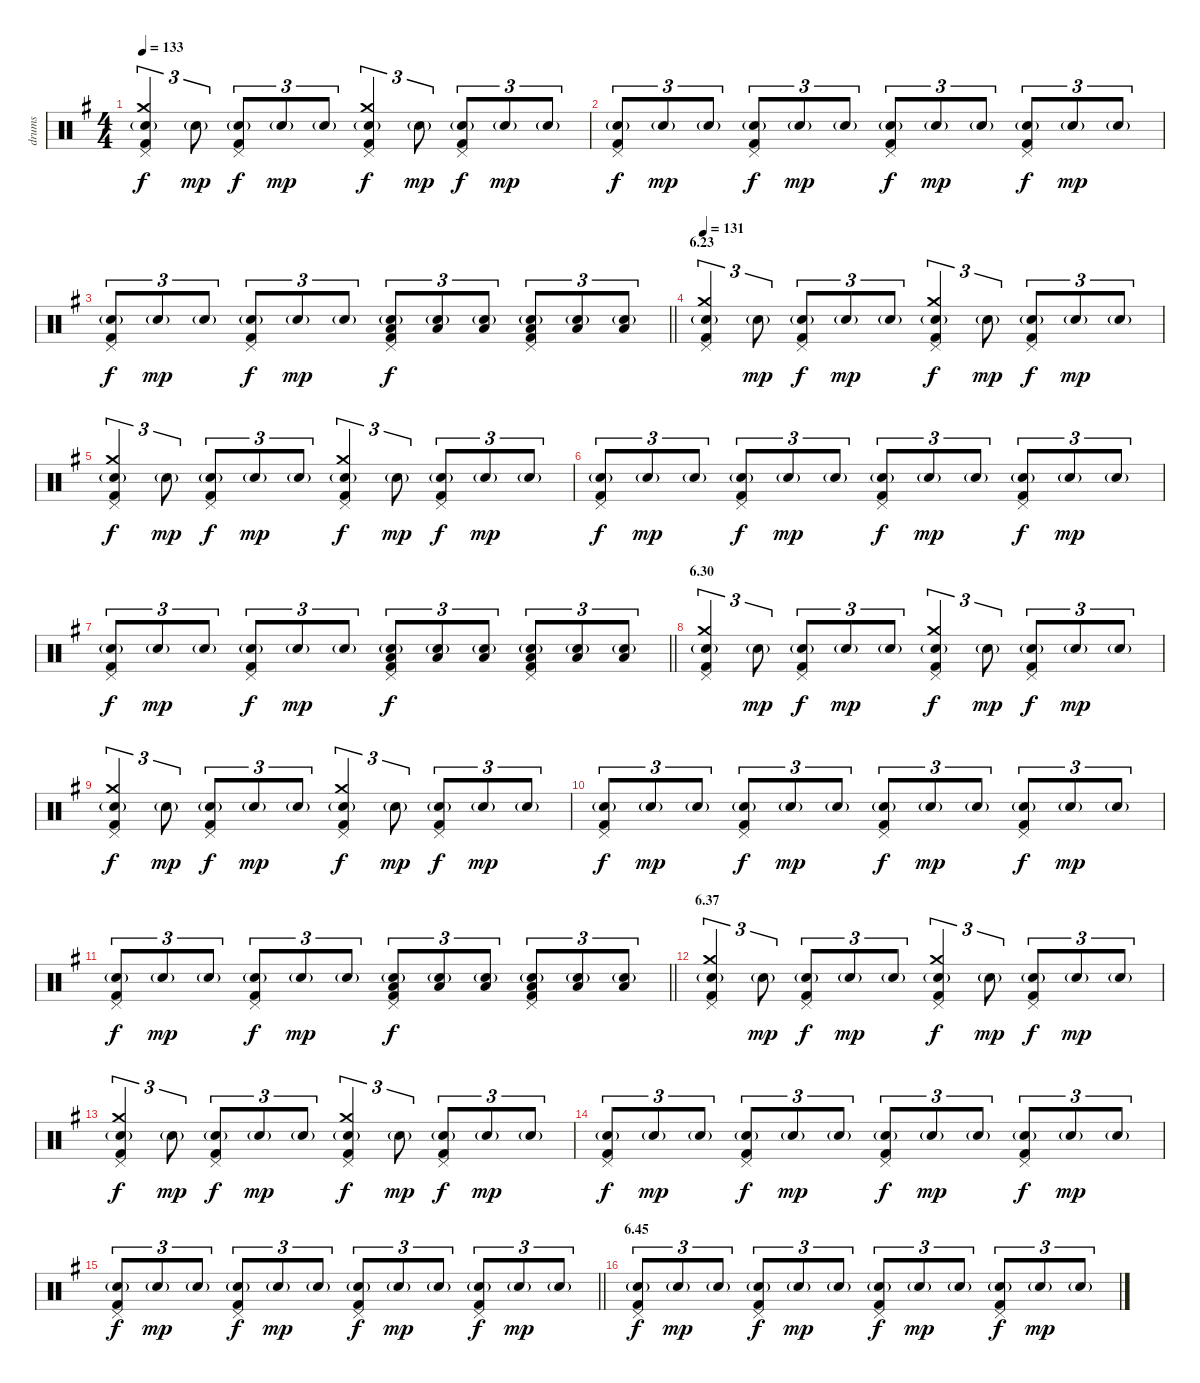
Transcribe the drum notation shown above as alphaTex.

\track ("drums" "drums") {instrument percussion}
\staff {score}
\articulation defaults
\ts (4 4)
\tempo 133
\clef neutral
\ks g
("Pedal Hi-Hat (hit)" "Crash medium (hit)" "Electric Snare (hit)"{g} "Kick (hit) 2").4{tu (3 2) dy f} "Electric Snare (hit)"{g}.8{tu (3 2) dy mp} ("Pedal Hi-Hat (hit)" "Electric Snare (hit)"{g} "Kick (hit) 2").8{tu (3 2) dy f} "Electric Snare (hit)"{g}.8{tu (3 2) dy mp} "Electric Snare (hit)"{g}.8{tu (3 2)} ("Pedal Hi-Hat (hit)" "Crash medium (hit)" "Electric Snare (hit)"{g} "Kick (hit) 2").4{tu (3 2) dy f} "Electric Snare (hit)"{g}.8{tu (3 2) dy mp} ("Pedal Hi-Hat (hit)" "Electric Snare (hit)"{g} "Kick (hit) 2").8{tu (3 2) dy f} "Electric Snare (hit)"{g}.8{tu (3 2) dy mp} "Electric Snare (hit)"{g}.8{tu (3 2)} |
("Pedal Hi-Hat (hit)" "Electric Snare (hit)"{g} "Kick (hit) 2").8{tu (3 2) dy f} "Electric Snare (hit)"{g}.8{tu (3 2) dy mp} "Electric Snare (hit)"{g}.8{tu (3 2)} ("Pedal Hi-Hat (hit)" "Electric Snare (hit)"{g} "Kick (hit) 2").8{tu (3 2) dy f} "Electric Snare (hit)"{g}.8{tu (3 2) dy mp} "Electric Snare (hit)"{g}.8{tu (3 2)} ("Pedal Hi-Hat (hit)" "Electric Snare (hit)"{g} "Kick (hit) 2").8{tu (3 2) dy f} "Electric Snare (hit)"{g}.8{tu (3 2) dy mp} "Electric Snare (hit)"{g}.8{tu (3 2)} ("Pedal Hi-Hat (hit)" "Electric Snare (hit)"{g} "Kick (hit) 2").8{tu (3 2) dy f} "Electric Snare (hit)"{g}.8{tu (3 2) dy mp} "Electric Snare (hit)"{g}.8{tu (3 2)} |
\barLineRight lightlight
("Pedal Hi-Hat (hit)" "Electric Snare (hit)"{g} "Kick (hit) 2").8{tu (3 2) dy f} "Electric Snare (hit)"{g}.8{tu (3 2) dy mp} "Electric Snare (hit)"{g}.8{tu (3 2)} ("Pedal Hi-Hat (hit)" "Electric Snare (hit)"{g} "Kick (hit) 2").8{tu (3 2) dy f} "Electric Snare (hit)"{g}.8{tu (3 2) dy mp} "Electric Snare (hit)"{g}.8{tu (3 2)} ("Pedal Hi-Hat (hit)" "Low Tom (hit)" "Electric Snare (hit)"{g} "Kick (hit) 2").8{tu (3 2) dy f} ("Low Tom (hit)" "Electric Snare (hit)"{g}).8{tu (3 2)} ("Low Tom (hit)" "Electric Snare (hit)"{g}).8{tu (3 2)} ("Pedal Hi-Hat (hit)" "Low Tom (hit)" "Electric Snare (hit)"{g} "Kick (hit) 2").8{tu (3 2)} ("Low Tom (hit)" "Electric Snare (hit)"{g}).8{tu (3 2)} ("Low Tom (hit)" "Electric Snare (hit)"{g}).8{tu (3 2)} |
\section ("" "6.23")
\tempo 131
("Pedal Hi-Hat (hit)" "Crash medium (hit)" "Electric Snare (hit)"{g} "Kick (hit) 2").4{tu (3 2)} "Electric Snare (hit)"{g}.8{tu (3 2) dy mp} ("Pedal Hi-Hat (hit)" "Electric Snare (hit)"{g} "Kick (hit) 2").8{tu (3 2) dy f} "Electric Snare (hit)"{g}.8{tu (3 2) dy mp} "Electric Snare (hit)"{g}.8{tu (3 2)} ("Pedal Hi-Hat (hit)" "Crash medium (hit)" "Electric Snare (hit)"{g} "Kick (hit) 2").4{tu (3 2) dy f} "Electric Snare (hit)"{g}.8{tu (3 2) dy mp} ("Pedal Hi-Hat (hit)" "Electric Snare (hit)"{g} "Kick (hit) 2").8{tu (3 2) dy f} "Electric Snare (hit)"{g}.8{tu (3 2) dy mp} "Electric Snare (hit)"{g}.8{tu (3 2)} |
("Pedal Hi-Hat (hit)" "Crash medium (hit)" "Electric Snare (hit)"{g} "Kick (hit) 2").4{tu (3 2) dy f} "Electric Snare (hit)"{g}.8{tu (3 2) dy mp} ("Pedal Hi-Hat (hit)" "Electric Snare (hit)"{g} "Kick (hit) 2").8{tu (3 2) dy f} "Electric Snare (hit)"{g}.8{tu (3 2) dy mp} "Electric Snare (hit)"{g}.8{tu (3 2)} ("Pedal Hi-Hat (hit)" "Crash medium (hit)" "Electric Snare (hit)"{g} "Kick (hit) 2").4{tu (3 2) dy f} "Electric Snare (hit)"{g}.8{tu (3 2) dy mp} ("Pedal Hi-Hat (hit)" "Electric Snare (hit)"{g} "Kick (hit) 2").8{tu (3 2) dy f} "Electric Snare (hit)"{g}.8{tu (3 2) dy mp} "Electric Snare (hit)"{g}.8{tu (3 2)} |
("Pedal Hi-Hat (hit)" "Electric Snare (hit)"{g} "Kick (hit) 2").8{tu (3 2) dy f} "Electric Snare (hit)"{g}.8{tu (3 2) dy mp} "Electric Snare (hit)"{g}.8{tu (3 2)} ("Pedal Hi-Hat (hit)" "Electric Snare (hit)"{g} "Kick (hit) 2").8{tu (3 2) dy f} "Electric Snare (hit)"{g}.8{tu (3 2) dy mp} "Electric Snare (hit)"{g}.8{tu (3 2)} ("Pedal Hi-Hat (hit)" "Electric Snare (hit)"{g} "Kick (hit) 2").8{tu (3 2) dy f} "Electric Snare (hit)"{g}.8{tu (3 2) dy mp} "Electric Snare (hit)"{g}.8{tu (3 2)} ("Pedal Hi-Hat (hit)" "Electric Snare (hit)"{g} "Kick (hit) 2").8{tu (3 2) dy f} "Electric Snare (hit)"{g}.8{tu (3 2) dy mp} "Electric Snare (hit)"{g}.8{tu (3 2)} |
\barLineRight lightlight
("Pedal Hi-Hat (hit)" "Electric Snare (hit)"{g} "Kick (hit) 2").8{tu (3 2) dy f} "Electric Snare (hit)"{g}.8{tu (3 2) dy mp} "Electric Snare (hit)"{g}.8{tu (3 2)} ("Pedal Hi-Hat (hit)" "Electric Snare (hit)"{g} "Kick (hit) 2").8{tu (3 2) dy f} "Electric Snare (hit)"{g}.8{tu (3 2) dy mp} "Electric Snare (hit)"{g}.8{tu (3 2)} ("Pedal Hi-Hat (hit)" "Low Tom (hit)" "Electric Snare (hit)"{g} "Kick (hit) 2").8{tu (3 2) dy f} ("Low Tom (hit)" "Electric Snare (hit)"{g}).8{tu (3 2)} ("Low Tom (hit)" "Electric Snare (hit)"{g}).8{tu (3 2)} ("Pedal Hi-Hat (hit)" "Low Tom (hit)" "Electric Snare (hit)"{g} "Kick (hit) 2").8{tu (3 2)} ("Low Tom (hit)" "Electric Snare (hit)"{g}).8{tu (3 2)} ("Low Tom (hit)" "Electric Snare (hit)"{g}).8{tu (3 2)} |
\section ("" "6.30")
("Pedal Hi-Hat (hit)" "Crash medium (hit)" "Electric Snare (hit)"{g} "Kick (hit) 2").4{tu (3 2)} "Electric Snare (hit)"{g}.8{tu (3 2) dy mp} ("Pedal Hi-Hat (hit)" "Electric Snare (hit)"{g} "Kick (hit) 2").8{tu (3 2) dy f} "Electric Snare (hit)"{g}.8{tu (3 2) dy mp} "Electric Snare (hit)"{g}.8{tu (3 2)} ("Pedal Hi-Hat (hit)" "Crash medium (hit)" "Electric Snare (hit)"{g} "Kick (hit) 2").4{tu (3 2) dy f} "Electric Snare (hit)"{g}.8{tu (3 2) dy mp} ("Pedal Hi-Hat (hit)" "Electric Snare (hit)"{g} "Kick (hit) 2").8{tu (3 2) dy f} "Electric Snare (hit)"{g}.8{tu (3 2) dy mp} "Electric Snare (hit)"{g}.8{tu (3 2)} |
("Pedal Hi-Hat (hit)" "Crash medium (hit)" "Electric Snare (hit)"{g} "Kick (hit) 2").4{tu (3 2) dy f} "Electric Snare (hit)"{g}.8{tu (3 2) dy mp} ("Pedal Hi-Hat (hit)" "Electric Snare (hit)"{g} "Kick (hit) 2").8{tu (3 2) dy f} "Electric Snare (hit)"{g}.8{tu (3 2) dy mp} "Electric Snare (hit)"{g}.8{tu (3 2)} ("Pedal Hi-Hat (hit)" "Crash medium (hit)" "Electric Snare (hit)"{g} "Kick (hit) 2").4{tu (3 2) dy f} "Electric Snare (hit)"{g}.8{tu (3 2) dy mp} ("Pedal Hi-Hat (hit)" "Electric Snare (hit)"{g} "Kick (hit) 2").8{tu (3 2) dy f} "Electric Snare (hit)"{g}.8{tu (3 2) dy mp} "Electric Snare (hit)"{g}.8{tu (3 2)} |
("Pedal Hi-Hat (hit)" "Electric Snare (hit)"{g} "Kick (hit) 2").8{tu (3 2) dy f} "Electric Snare (hit)"{g}.8{tu (3 2) dy mp} "Electric Snare (hit)"{g}.8{tu (3 2)} ("Pedal Hi-Hat (hit)" "Electric Snare (hit)"{g} "Kick (hit) 2").8{tu (3 2) dy f} "Electric Snare (hit)"{g}.8{tu (3 2) dy mp} "Electric Snare (hit)"{g}.8{tu (3 2)} ("Pedal Hi-Hat (hit)" "Electric Snare (hit)"{g} "Kick (hit) 2").8{tu (3 2) dy f} "Electric Snare (hit)"{g}.8{tu (3 2) dy mp} "Electric Snare (hit)"{g}.8{tu (3 2)} ("Pedal Hi-Hat (hit)" "Electric Snare (hit)"{g} "Kick (hit) 2").8{tu (3 2) dy f} "Electric Snare (hit)"{g}.8{tu (3 2) dy mp} "Electric Snare (hit)"{g}.8{tu (3 2)} |
\barLineRight lightlight
("Pedal Hi-Hat (hit)" "Electric Snare (hit)"{g} "Kick (hit) 2").8{tu (3 2) dy f} "Electric Snare (hit)"{g}.8{tu (3 2) dy mp} "Electric Snare (hit)"{g}.8{tu (3 2)} ("Pedal Hi-Hat (hit)" "Electric Snare (hit)"{g} "Kick (hit) 2").8{tu (3 2) dy f} "Electric Snare (hit)"{g}.8{tu (3 2) dy mp} "Electric Snare (hit)"{g}.8{tu (3 2)} ("Pedal Hi-Hat (hit)" "Low Tom (hit)" "Electric Snare (hit)"{g} "Kick (hit) 2").8{tu (3 2) dy f} ("Low Tom (hit)" "Electric Snare (hit)"{g}).8{tu (3 2)} ("Low Tom (hit)" "Electric Snare (hit)"{g}).8{tu (3 2)} ("Pedal Hi-Hat (hit)" "Low Tom (hit)" "Electric Snare (hit)"{g} "Kick (hit) 2").8{tu (3 2)} ("Low Tom (hit)" "Electric Snare (hit)"{g}).8{tu (3 2)} ("Low Tom (hit)" "Electric Snare (hit)"{g}).8{tu (3 2)} |
\section ("" "6.37")
("Pedal Hi-Hat (hit)" "Crash medium (hit)" "Electric Snare (hit)"{g} "Kick (hit) 2").4{tu (3 2)} "Electric Snare (hit)"{g}.8{tu (3 2) dy mp} ("Pedal Hi-Hat (hit)" "Electric Snare (hit)"{g} "Kick (hit) 2").8{tu (3 2) dy f} "Electric Snare (hit)"{g}.8{tu (3 2) dy mp} "Electric Snare (hit)"{g}.8{tu (3 2)} ("Pedal Hi-Hat (hit)" "Crash medium (hit)" "Electric Snare (hit)"{g} "Kick (hit) 2").4{tu (3 2) dy f} "Electric Snare (hit)"{g}.8{tu (3 2) dy mp} ("Pedal Hi-Hat (hit)" "Electric Snare (hit)"{g} "Kick (hit) 2").8{tu (3 2) dy f} "Electric Snare (hit)"{g}.8{tu (3 2) dy mp} "Electric Snare (hit)"{g}.8{tu (3 2)} |
("Pedal Hi-Hat (hit)" "Crash medium (hit)" "Electric Snare (hit)"{g} "Kick (hit) 2").4{tu (3 2) dy f} "Electric Snare (hit)"{g}.8{tu (3 2) dy mp} ("Pedal Hi-Hat (hit)" "Electric Snare (hit)"{g} "Kick (hit) 2").8{tu (3 2) dy f} "Electric Snare (hit)"{g}.8{tu (3 2) dy mp} "Electric Snare (hit)"{g}.8{tu (3 2)} ("Pedal Hi-Hat (hit)" "Crash medium (hit)" "Electric Snare (hit)"{g} "Kick (hit) 2").4{tu (3 2) dy f} "Electric Snare (hit)"{g}.8{tu (3 2) dy mp} ("Pedal Hi-Hat (hit)" "Electric Snare (hit)"{g} "Kick (hit) 2").8{tu (3 2) dy f} "Electric Snare (hit)"{g}.8{tu (3 2) dy mp} "Electric Snare (hit)"{g}.8{tu (3 2)} |
("Pedal Hi-Hat (hit)" "Electric Snare (hit)"{g} "Kick (hit) 2").8{tu (3 2) dy f} "Electric Snare (hit)"{g}.8{tu (3 2) dy mp} "Electric Snare (hit)"{g}.8{tu (3 2)} ("Pedal Hi-Hat (hit)" "Electric Snare (hit)"{g} "Kick (hit) 2").8{tu (3 2) dy f} "Electric Snare (hit)"{g}.8{tu (3 2) dy mp} "Electric Snare (hit)"{g}.8{tu (3 2)} ("Pedal Hi-Hat (hit)" "Electric Snare (hit)"{g} "Kick (hit) 2").8{tu (3 2) dy f} "Electric Snare (hit)"{g}.8{tu (3 2) dy mp} "Electric Snare (hit)"{g}.8{tu (3 2)} ("Pedal Hi-Hat (hit)" "Electric Snare (hit)"{g} "Kick (hit) 2").8{tu (3 2) dy f} "Electric Snare (hit)"{g}.8{tu (3 2) dy mp} "Electric Snare (hit)"{g}.8{tu (3 2)} |
\barLineRight lightlight
("Pedal Hi-Hat (hit)" "Electric Snare (hit)"{g} "Kick (hit) 2").8{tu (3 2) dy f} "Electric Snare (hit)"{g}.8{tu (3 2) dy mp} "Electric Snare (hit)"{g}.8{tu (3 2)} ("Pedal Hi-Hat (hit)" "Electric Snare (hit)"{g} "Kick (hit) 2").8{tu (3 2) dy f} "Electric Snare (hit)"{g}.8{tu (3 2) dy mp} "Electric Snare (hit)"{g}.8{tu (3 2)} ("Pedal Hi-Hat (hit)" "Electric Snare (hit)"{g} "Kick (hit) 2").8{tu (3 2) dy f} "Electric Snare (hit)"{g}.8{tu (3 2) dy mp} "Electric Snare (hit)"{g}.8{tu (3 2)} ("Pedal Hi-Hat (hit)" "Electric Snare (hit)"{g} "Kick (hit) 2").8{tu (3 2) dy f} "Electric Snare (hit)"{g}.8{tu (3 2) dy mp} "Electric Snare (hit)"{g}.8{tu (3 2)} |
\section ("" "6.45")
("Pedal Hi-Hat (hit)" "Electric Snare (hit)"{g} "Kick (hit) 2").8{tu (3 2) dy f} "Electric Snare (hit)"{g}.8{tu (3 2) dy mp} "Electric Snare (hit)"{g}.8{tu (3 2)} ("Pedal Hi-Hat (hit)" "Electric Snare (hit)"{g} "Kick (hit) 2").8{tu (3 2) dy f} "Electric Snare (hit)"{g}.8{tu (3 2) dy mp} "Electric Snare (hit)"{g}.8{tu (3 2)} ("Pedal Hi-Hat (hit)" "Electric Snare (hit)"{g} "Kick (hit) 2").8{tu (3 2) dy f} "Electric Snare (hit)"{g}.8{tu (3 2) dy mp} "Electric Snare (hit)"{g}.8{tu (3 2)} ("Pedal Hi-Hat (hit)" "Electric Snare (hit)"{g} "Kick (hit) 2").8{tu (3 2) dy f} "Electric Snare (hit)"{g}.8{tu (3 2) dy mp} "Electric Snare (hit)"{g}.8{tu (3 2)}
